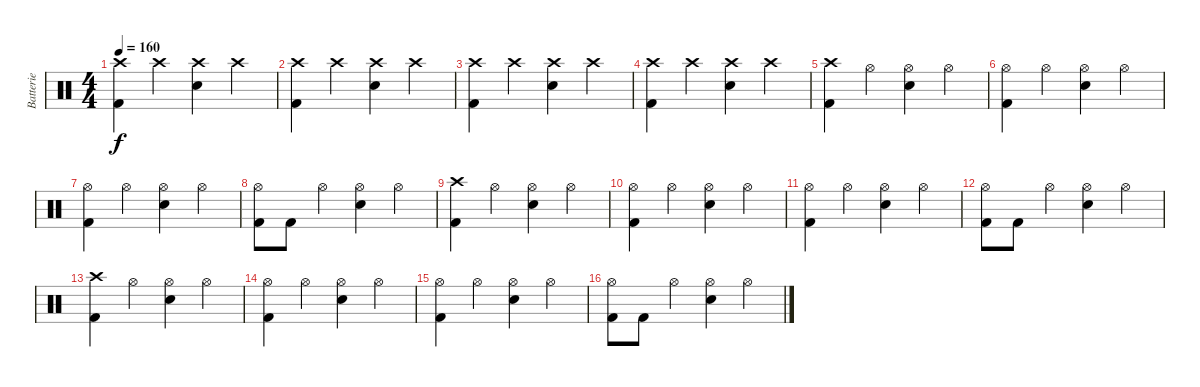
\track ("Batterie" "Batterie") {instrument percussion}
\staff {score}
\articulation defaults
\ts (4 4)
\tempo 160
\clef neutral
\ks c
("Crash high (hit)" "Kick (hit) 2").4{dy f} "Crash high (hit)".4 ("Crash high (hit)" "Electric Snare (hit)").4 "Crash high (hit)".4 |
("Crash high (hit)" "Kick (hit) 2").4 "Crash high (hit)".4 ("Crash high (hit)" "Electric Snare (hit)").4 "Crash high (hit)".4 |
("Crash high (hit)" "Kick (hit) 2").4 "Crash high (hit)".4 ("Crash high (hit)" "Electric Snare (hit)").4 "Crash high (hit)".4 |
("Crash high (hit)" "Kick (hit) 2").4 "Crash high (hit)".4 ("Crash high (hit)" "Electric Snare (hit)").4 "Crash high (hit)".4 |
("Crash high (hit)" "Kick (hit) 2").4 "Hi-Hat (open)".4 ("Hi-Hat (open)" "Electric Snare (hit)").4 "Hi-Hat (open)".4 |
("Hi-Hat (open)" "Kick (hit) 2").4 "Hi-Hat (open)".4 ("Hi-Hat (open)" "Electric Snare (hit)").4 "Hi-Hat (open)".4 |
("Hi-Hat (open)" "Kick (hit) 2").4 "Hi-Hat (open)".4 ("Hi-Hat (open)" "Electric Snare (hit)").4 "Hi-Hat (open)".4 |
("Hi-Hat (open)" "Kick (hit) 2").8 "Kick (hit) 2".8 "Hi-Hat (open)".4 ("Hi-Hat (open)" "Electric Snare (hit)").4 "Hi-Hat (open)".4 |
("Crash high (hit)" "Kick (hit) 2").4 "Hi-Hat (open)".4 ("Hi-Hat (open)" "Electric Snare (hit)").4 "Hi-Hat (open)".4 |
("Hi-Hat (open)" "Kick (hit) 2").4 "Hi-Hat (open)".4 ("Hi-Hat (open)" "Electric Snare (hit)").4 "Hi-Hat (open)".4 |
("Hi-Hat (open)" "Kick (hit) 2").4 "Hi-Hat (open)".4 ("Hi-Hat (open)" "Electric Snare (hit)").4 "Hi-Hat (open)".4 |
("Hi-Hat (open)" "Kick (hit) 2").8 "Kick (hit) 2".8 "Hi-Hat (open)".4 ("Hi-Hat (open)" "Electric Snare (hit)").4 "Hi-Hat (open)".4 |
("Crash high (hit)" "Kick (hit) 2").4 "Hi-Hat (open)".4 ("Hi-Hat (open)" "Electric Snare (hit)").4 "Hi-Hat (open)".4 |
("Hi-Hat (open)" "Kick (hit) 2").4 "Hi-Hat (open)".4 ("Hi-Hat (open)" "Electric Snare (hit)").4 "Hi-Hat (open)".4 |
("Hi-Hat (open)" "Kick (hit) 2").4 "Hi-Hat (open)".4 ("Hi-Hat (open)" "Electric Snare (hit)").4 "Hi-Hat (open)".4 |
("Hi-Hat (open)" "Kick (hit) 2").8 "Kick (hit) 2".8 "Hi-Hat (open)".4 ("Hi-Hat (open)" "Electric Snare (hit)").4 "Hi-Hat (open)".4
